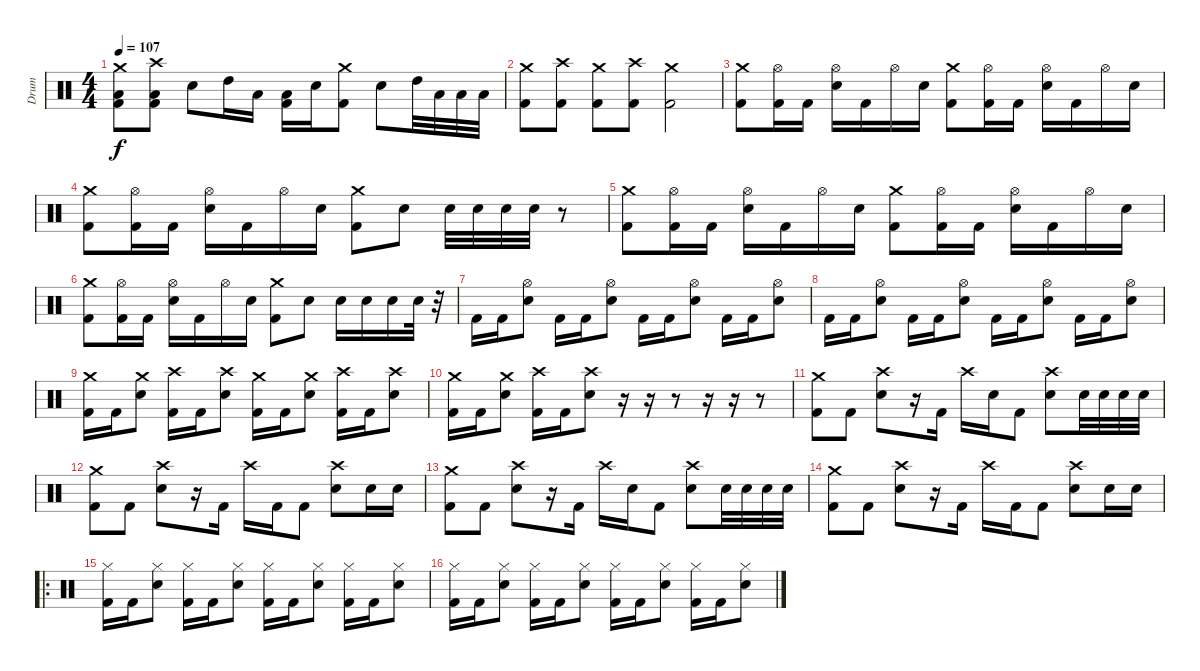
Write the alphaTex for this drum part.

\track ("Drum" "Drum") {instrument percussion}
\staff {score}
\articulation defaults
\ts (4 4)
\tempo 107
\clef neutral
\ks c
("Crash medium (hit)" "Low Floor Tom (hit)" "Kick (hit) 2").8{dy f} ("Crash high (hit)" "Low Floor Tom (hit)" "Kick (hit) 2").8 "Snare (hit) 2".8 "High Tom (hit)".16 "Low Tom (hit)".16 ("Low Floor Tom (hit)" "Kick (hit) 2").16 "Snare (hit) 2".16 ("Crash medium (hit)" "Kick (hit) 2").8 "Snare (hit) 2".8 "High Tom (hit)".32 "Low Tom (hit)".32 "Low Floor Tom (hit)".32 "Low Floor Tom (hit)".32 |
("Crash medium (hit)" "Kick (hit) 2").8 ("Crash high (hit)" "Kick (hit) 2").8 ("Crash medium (hit)" "Kick (hit) 2").8 ("Crash high (hit)" "Kick (hit) 2").8 ("Crash medium (hit)" "Kick (hit) 2").2 |
("Crash medium (hit)" "Kick (hit) 2").8 ("Hi-Hat (open)" "Kick (hit) 2").16 "Kick (hit) 2".16 ("Hi-Hat (open)" "Snare (hit) 2").16 "Kick (hit) 2".16 "Hi-Hat (open)".16 "Snare (hit) 2".16 ("Crash medium (hit)" "Kick (hit) 2").8 ("Hi-Hat (open)" "Kick (hit) 2").16 "Kick (hit) 2".16 ("Hi-Hat (open)" "Snare (hit) 2").16 "Kick (hit) 2".16 "Hi-Hat (open)".16 "Snare (hit) 2".16 |
("Crash medium (hit)" "Kick (hit) 2").8 ("Hi-Hat (open)" "Kick (hit) 2").16 "Kick (hit) 2".16 ("Hi-Hat (open)" "Snare (hit) 2").16 "Kick (hit) 2".16 "Hi-Hat (open)".16 "Snare (hit) 2".16 ("Crash medium (hit)" "Kick (hit) 2").8 "Snare (hit) 2".8 "Snare (hit) 2".32 "Snare (hit) 2".32 "Snare (hit) 2".32 "Snare (hit) 2".32 r.8 |
("Crash medium (hit)" "Kick (hit) 2").8 ("Hi-Hat (open)" "Kick (hit) 2").16 "Kick (hit) 2".16 ("Hi-Hat (open)" "Snare (hit) 2").16 "Kick (hit) 2".16 "Hi-Hat (open)".16 "Snare (hit) 2".16 ("Crash medium (hit)" "Kick (hit) 2").8 ("Hi-Hat (open)" "Kick (hit) 2").16 "Kick (hit) 2".16 ("Hi-Hat (open)" "Snare (hit) 2").16 "Kick (hit) 2".16 "Hi-Hat (open)".16 "Snare (hit) 2".16 |
("Crash medium (hit)" "Kick (hit) 2").8 ("Hi-Hat (open)" "Kick (hit) 2").16 "Kick (hit) 2".16 ("Hi-Hat (open)" "Snare (hit) 2").16 "Kick (hit) 2".16 "Hi-Hat (open)".16 "Snare (hit) 2".16 ("Crash medium (hit)" "Kick (hit) 2").8 "Snare (hit) 2".8 "Snare (hit) 2".16 "Snare (hit) 2".16 "Snare (hit) 2".16 "Snare (hit) 2".32 r.32 |
"Kick (hit) 2".16 "Kick (hit) 2".16 ("Hi-Hat (open)" "Snare (hit) 2").8 "Kick (hit) 2".16 "Kick (hit) 2".16 ("Hi-Hat (open)" "Snare (hit) 2").8 "Kick (hit) 2".16 "Kick (hit) 2".16 ("Hi-Hat (open)" "Snare (hit) 2").8 "Kick (hit) 2".16 "Kick (hit) 2".16 ("Hi-Hat (open)" "Snare (hit) 2").8 |
"Kick (hit) 2".16 "Kick (hit) 2".16 ("Hi-Hat (open)" "Snare (hit) 2").8 "Kick (hit) 2".16 "Kick (hit) 2".16 ("Hi-Hat (open)" "Snare (hit) 2").8 "Kick (hit) 2".16 "Kick (hit) 2".16 ("Hi-Hat (open)" "Snare (hit) 2").8 "Kick (hit) 2".16 "Kick (hit) 2".16 ("Hi-Hat (open)" "Snare (hit) 2").8 |
("Crash medium (hit)" "Kick (hit) 2").16 "Kick (hit) 2".16 ("Crash medium (hit)" "Snare (hit) 2").8 ("Crash high (hit)" "Kick (hit) 2").16 "Kick (hit) 2".16 ("Crash high (hit)" "Snare (hit) 2").8 ("Crash medium (hit)" "Kick (hit) 2").16 "Kick (hit) 2".16 ("Crash medium (hit)" "Snare (hit) 2").8 ("Crash high (hit)" "Kick (hit) 2").16 "Kick (hit) 2".16 ("Crash high (hit)" "Snare (hit) 2").8 |
("Crash medium (hit)" "Kick (hit) 2").16 "Kick (hit) 2".16 ("Crash medium (hit)" "Snare (hit) 2").8 ("Crash high (hit)" "Kick (hit) 2").16 "Kick (hit) 2".16 ("Crash high (hit)" "Snare (hit) 2").8 r.16 r.16 r.8 r.16 r.16 r.8 |
("Crash medium (hit)" "Kick (hit) 2").8 "Kick (hit) 2".8 ("Crash high (hit)" "Snare (hit) 2").8 r.16 "Kick (hit) 2".16 "Crash high (hit)".16 "Snare (hit) 2".16 "Kick (hit) 2".8 ("Crash high (hit)" "Snare (hit) 2").8 "Snare (hit) 2".32 "Snare (hit) 2".32 "Snare (hit) 2".32 "Snare (hit) 2".32 |
("Crash medium (hit)" "Kick (hit) 2").8 "Kick (hit) 2".8 ("Crash high (hit)" "Snare (hit) 2").8 r.16 "Kick (hit) 2".16 "Crash high (hit)".16 "Kick (hit) 2".16 "Kick (hit) 2".8 ("Crash high (hit)" "Snare (hit) 2").8 "Snare (hit) 2".16 "Snare (hit) 2".16 |
("Crash medium (hit)" "Kick (hit) 2").8 "Kick (hit) 2".8 ("Crash high (hit)" "Snare (hit) 2").8 r.16 "Kick (hit) 2".16 "Crash high (hit)".16 "Snare (hit) 2".16 "Kick (hit) 2".8 ("Crash high (hit)" "Snare (hit) 2").8 "Snare (hit) 2".32 "Snare (hit) 2".32 "Snare (hit) 2".32 "Snare (hit) 2".32 |
("Crash medium (hit)" "Kick (hit) 2").8 "Kick (hit) 2".8 ("Crash high (hit)" "Snare (hit) 2").8 r.16 "Kick (hit) 2".16 "Crash high (hit)".16 "Kick (hit) 2".16 "Kick (hit) 2".8 ("Crash high (hit)" "Snare (hit) 2").8 "Snare (hit) 2".16 "Snare (hit) 2".16 |
\ro
("Hi-Hat (closed)" "Kick (hit) 2").16 "Kick (hit) 2".16 ("Hi-Hat (closed)" "Snare (hit) 2").8 ("Hi-Hat (closed)" "Kick (hit) 2").16 "Kick (hit) 2".16 ("Hi-Hat (closed)" "Snare (hit) 2").8 ("Hi-Hat (closed)" "Kick (hit) 2").16 "Kick (hit) 2".16 ("Hi-Hat (closed)" "Snare (hit) 2").8 ("Hi-Hat (closed)" "Kick (hit) 2").16 "Kick (hit) 2".16 ("Hi-Hat (closed)" "Snare (hit) 2").8 |
("Hi-Hat (closed)" "Kick (hit) 2").16 "Kick (hit) 2".16 ("Hi-Hat (closed)" "Snare (hit) 2").8 ("Hi-Hat (closed)" "Kick (hit) 2").16 "Kick (hit) 2".16 ("Hi-Hat (closed)" "Snare (hit) 2").8 ("Hi-Hat (closed)" "Kick (hit) 2").16 "Kick (hit) 2".16 ("Hi-Hat (closed)" "Snare (hit) 2").8 ("Hi-Hat (closed)" "Kick (hit) 2").16 "Kick (hit) 2".16 ("Hi-Hat (closed)" "Snare (hit) 2").8
